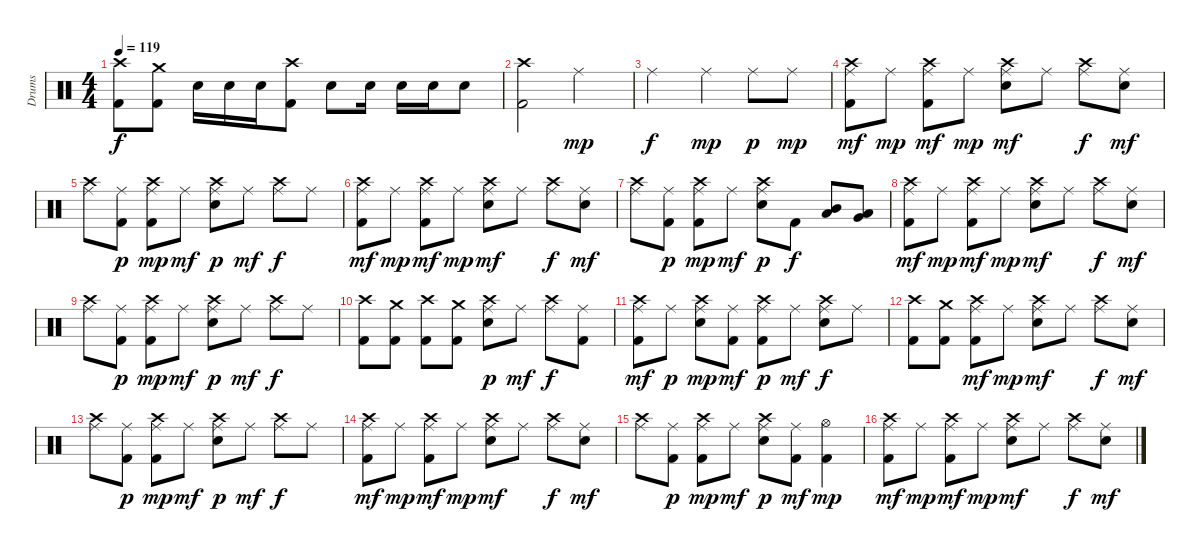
\track ("Drums" "Drums") {instrument percussion}
\staff {score}
\articulation defaults
\ts (4 4)
\tempo 119
\clef neutral
\ks c
("Crash high (hit)" "Kick (hit) 2").8{dy f} ("Crash medium (hit)" "Kick (hit) 2").8 "Electric Snare (hit)".16 "Electric Snare (hit)".16 "Electric Snare (hit)".16 ("Crash high (hit)" "Kick (hit) 2").8 "Electric Snare (hit)".8 "Electric Snare (hit)".16 "Electric Snare (hit)".16 "Electric Snare (hit)".16 "Electric Snare (hit)".8 |
("Crash high (hit)" "Kick (hit) 2").2 "Ride (middle)".2{dy mp} |
"Ride (middle)".2{dy f} "Ride (middle)".4{dy mp} "Ride (middle)".8{dy p} "Ride (middle)".8{dy mp} |
("Crash high (hit)" "Ride (middle)" "Kick (hit) 2").8{dy mf} "Ride (middle)".8{dy mp} ("Crash high (hit)" "Ride (middle)" "Kick (hit) 2").8{dy mf} "Ride (middle)".8{dy mp} ("Crash high (hit)" "Ride (middle)" "Electric Snare (hit)").8{dy mf} "Ride (middle)".8 ("Crash high (hit)" "Ride (middle)").8{dy f} ("Ride (middle)" "Electric Snare (hit)").8{dy mf} |
("Crash high (hit)" "Ride (middle)").8 ("Ride (middle)" "Kick (hit) 2").8{dy p} ("Crash high (hit)" "Ride (middle)" "Kick (hit) 2").8{dy mp} "Ride (middle)".8{dy mf} ("Crash high (hit)" "Ride (middle)" "Electric Snare (hit)").8{dy p} "Ride (middle)".8{dy mf} ("Crash high (hit)" "Ride (middle)").8{dy f} "Ride (middle)".8 |
("Crash high (hit)" "Ride (middle)" "Kick (hit) 2").8{dy mf} "Ride (middle)".8{dy mp} ("Crash high (hit)" "Ride (middle)" "Kick (hit) 2").8{dy mf} "Ride (middle)".8{dy mp} ("Crash high (hit)" "Ride (middle)" "Electric Snare (hit)").8{dy mf} "Ride (middle)".8 ("Crash high (hit)" "Ride (middle)").8{dy f} ("Ride (middle)" "Electric Snare (hit)").8{dy mf} |
("Crash high (hit)" "Ride (middle)").8 ("Ride (middle)" "Kick (hit) 2").8{dy p} ("Crash high (hit)" "Ride (middle)" "Kick (hit) 2").8{dy mp} "Ride (middle)".8{dy mf} ("Crash high (hit)" "Ride (middle)" "Electric Snare (hit)").8{dy p} "Kick (hit) 2".8{dy f} ("Mid Tom (hit)" "Low Tom (hit)").8{bd 120} ("Low Tom (hit)" "Very Low Tom (hit)").8{bd 120} |
("Crash high (hit)" "Ride (middle)" "Kick (hit) 2").8{dy mf} "Ride (middle)".8{dy mp} ("Crash high (hit)" "Ride (middle)" "Kick (hit) 2").8{dy mf} "Ride (middle)".8{dy mp} ("Crash high (hit)" "Ride (middle)" "Electric Snare (hit)").8{dy mf} "Ride (middle)".8 ("Crash high (hit)" "Ride (middle)").8{dy f} ("Ride (middle)" "Electric Snare (hit)").8{dy mf} |
("Crash high (hit)" "Ride (middle)").8 ("Ride (middle)" "Kick (hit) 2").8{dy p} ("Crash high (hit)" "Ride (middle)" "Kick (hit) 2").8{dy mp} "Ride (middle)".8{dy mf} ("Crash high (hit)" "Ride (middle)" "Electric Snare (hit)").8{dy p} "Ride (middle)".8{dy mf} ("Crash high (hit)" "Ride (middle)").8{dy f} "Ride (middle)".8 |
("Crash high (hit)" "Kick (hit) 2").8 ("Crash medium (hit)" "Kick (hit) 2").8 ("Crash high (hit)" "Kick (hit) 2").8 ("Crash medium (hit)" "Kick (hit) 2").8 ("Crash high (hit)" "Ride (middle)" "Electric Snare (hit)").8{dy p} "Ride (middle)".8{dy mf} ("Crash high (hit)" "Ride (middle)").8{dy f} ("Ride (middle)" "Kick (hit) 2").8 |
("Crash high (hit)" "Ride (middle)" "Kick (hit) 2").8{dy mf} "Ride (middle)".8{dy p} ("Crash high (hit)" "Ride (middle)" "Electric Snare (hit)").8{dy mp} ("Ride (middle)" "Kick (hit) 2").8{dy mf} ("Crash high (hit)" "Ride (middle)" "Kick (hit) 2").8{dy p} "Ride (middle)".8{dy mf} ("Crash high (hit)" "Ride (middle)" "Electric Snare (hit)").8{dy f} "Ride (middle)".8 |
("Crash high (hit)" "Kick (hit) 2").8 ("Crash medium (hit)" "Kick (hit) 2").8 ("Crash high (hit)" "Ride (middle)" "Kick (hit) 2").8{dy mf} "Ride (middle)".8{dy mp} ("Crash high (hit)" "Ride (middle)" "Electric Snare (hit)").8{dy mf} "Ride (middle)".8 ("Crash high (hit)" "Ride (middle)").8{dy f} ("Ride (middle)" "Electric Snare (hit)").8{dy mf} |
("Crash high (hit)" "Ride (middle)").8 ("Ride (middle)" "Kick (hit) 2").8{dy p} ("Crash high (hit)" "Ride (middle)" "Kick (hit) 2").8{dy mp} "Ride (middle)".8{dy mf} ("Crash high (hit)" "Ride (middle)" "Electric Snare (hit)").8{dy p} "Ride (middle)".8{dy mf} ("Crash high (hit)" "Ride (middle)").8{dy f} "Ride (middle)".8 |
("Crash high (hit)" "Ride (middle)" "Kick (hit) 2").8{dy mf} "Ride (middle)".8{dy mp} ("Crash high (hit)" "Ride (middle)" "Kick (hit) 2").8{dy mf} "Ride (middle)".8{dy mp} ("Crash high (hit)" "Ride (middle)" "Electric Snare (hit)").8{dy mf} "Ride (middle)".8 ("Crash high (hit)" "Ride (middle)").8{dy f} ("Ride (middle)" "Electric Snare (hit)").8{dy mf} |
("Crash high (hit)" "Ride (middle)").8 ("Ride (middle)" "Kick (hit) 2").8{dy p} ("Crash high (hit)" "Ride (middle)" "Kick (hit) 2").8{dy mp} "Ride (middle)".8{dy mf} ("Crash high (hit)" "Ride (middle)" "Electric Snare (hit)").8{dy p} ("Ride (middle)" "Kick (hit) 2").8{dy mf} ("Hi-Hat (open)" "Kick (hit) 2").4{dy mp} |
("Crash high (hit)" "Ride (middle)" "Kick (hit) 2").8{dy mf} "Ride (middle)".8{dy mp} ("Crash high (hit)" "Ride (middle)" "Kick (hit) 2").8{dy mf} "Ride (middle)".8{dy mp} ("Crash high (hit)" "Ride (middle)" "Electric Snare (hit)").8{dy mf} "Ride (middle)".8 ("Crash high (hit)" "Ride (middle)").8{dy f} ("Ride (middle)" "Electric Snare (hit)").8{dy mf}
